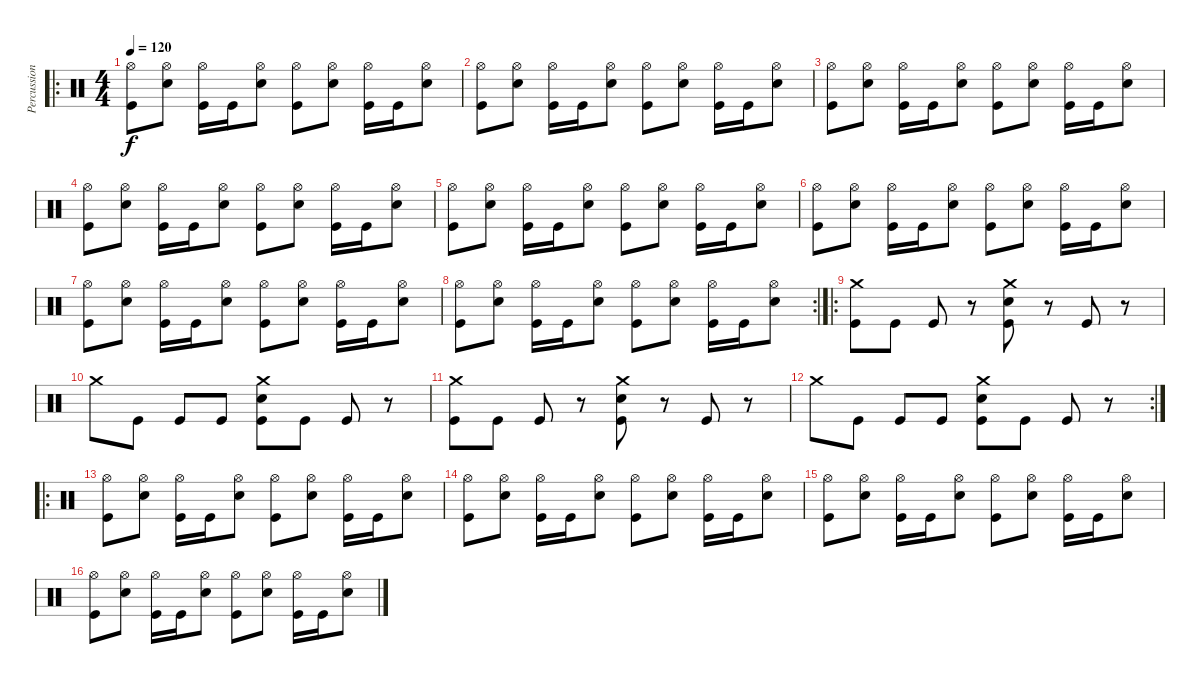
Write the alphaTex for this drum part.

\track ("Percussion" "Percussion") {instrument percussion}
\staff {score}
\articulation defaults
\ro
\ts (4 4)
\tempo 120
\clef neutral
\ks c
("Hi-Hat (open)" "Kick (hit)").8{dy f} ("Hi-Hat (open)" "Snare (hit) 2").8 ("Hi-Hat (open)" "Kick (hit)").16 "Kick (hit)".16 ("Hi-Hat (open)" "Snare (hit) 2").8 ("Hi-Hat (open)" "Kick (hit)").8 ("Hi-Hat (open)" "Snare (hit) 2").8 ("Hi-Hat (open)" "Kick (hit)").16 "Kick (hit)".16 ("Hi-Hat (open)" "Snare (hit) 2").8 |
("Hi-Hat (open)" "Kick (hit)").8 ("Hi-Hat (open)" "Snare (hit) 2").8 ("Hi-Hat (open)" "Kick (hit)").16 "Kick (hit)".16 ("Hi-Hat (open)" "Snare (hit) 2").8 ("Hi-Hat (open)" "Kick (hit)").8 ("Hi-Hat (open)" "Snare (hit) 2").8 ("Hi-Hat (open)" "Kick (hit)").16 "Kick (hit)".16 ("Hi-Hat (open)" "Snare (hit) 2").8 |
("Hi-Hat (open)" "Kick (hit)").8 ("Hi-Hat (open)" "Snare (hit) 2").8 ("Hi-Hat (open)" "Kick (hit)").16 "Kick (hit)".16 ("Hi-Hat (open)" "Snare (hit) 2").8 ("Hi-Hat (open)" "Kick (hit)").8 ("Hi-Hat (open)" "Snare (hit) 2").8 ("Hi-Hat (open)" "Kick (hit)").16 "Kick (hit)".16 ("Hi-Hat (open)" "Snare (hit) 2").8 |
("Hi-Hat (open)" "Kick (hit)").8 ("Hi-Hat (open)" "Snare (hit) 2").8 ("Hi-Hat (open)" "Kick (hit)").16 "Kick (hit)".16 ("Hi-Hat (open)" "Snare (hit) 2").8 ("Hi-Hat (open)" "Kick (hit)").8 ("Hi-Hat (open)" "Snare (hit) 2").8 ("Hi-Hat (open)" "Kick (hit)").16 "Kick (hit)".16 ("Hi-Hat (open)" "Snare (hit) 2").8 |
("Hi-Hat (open)" "Kick (hit)").8 ("Hi-Hat (open)" "Snare (hit) 2").8 ("Hi-Hat (open)" "Kick (hit)").16 "Kick (hit)".16 ("Hi-Hat (open)" "Snare (hit) 2").8 ("Hi-Hat (open)" "Kick (hit)").8 ("Hi-Hat (open)" "Snare (hit) 2").8 ("Hi-Hat (open)" "Kick (hit)").16 "Kick (hit)".16 ("Hi-Hat (open)" "Snare (hit) 2").8 |
("Hi-Hat (open)" "Kick (hit)").8 ("Hi-Hat (open)" "Snare (hit) 2").8 ("Hi-Hat (open)" "Kick (hit)").16 "Kick (hit)".16 ("Hi-Hat (open)" "Snare (hit) 2").8 ("Hi-Hat (open)" "Kick (hit)").8 ("Hi-Hat (open)" "Snare (hit) 2").8 ("Hi-Hat (open)" "Kick (hit)").16 "Kick (hit)".16 ("Hi-Hat (open)" "Snare (hit) 2").8 |
("Hi-Hat (open)" "Kick (hit)").8 ("Hi-Hat (open)" "Snare (hit) 2").8 ("Hi-Hat (open)" "Kick (hit)").16 "Kick (hit)".16 ("Hi-Hat (open)" "Snare (hit) 2").8 ("Hi-Hat (open)" "Kick (hit)").8 ("Hi-Hat (open)" "Snare (hit) 2").8 ("Hi-Hat (open)" "Kick (hit)").16 "Kick (hit)".16 ("Hi-Hat (open)" "Snare (hit) 2").8 |
\rc 2
("Hi-Hat (open)" "Kick (hit)").8 ("Hi-Hat (open)" "Snare (hit) 2").8 ("Hi-Hat (open)" "Kick (hit)").16 "Kick (hit)".16 ("Hi-Hat (open)" "Snare (hit) 2").8 ("Hi-Hat (open)" "Kick (hit)").8 ("Hi-Hat (open)" "Snare (hit) 2").8 ("Hi-Hat (open)" "Kick (hit)").16 "Kick (hit)".16 ("Hi-Hat (open)" "Snare (hit) 2").8 |
\ro
("Crash medium (hit)" "Kick (hit)").8 "Kick (hit)".8 "Kick (hit)".8 r.8 ("Crash medium (hit)" "Snare (hit) 2" "Kick (hit)").8 r.8 "Kick (hit)".8 r.8 |
"Crash medium (hit)".8 "Kick (hit)".8 "Kick (hit)".8 "Kick (hit)".8 ("Crash medium (hit)" "Snare (hit) 2" "Kick (hit)").8 "Kick (hit)".8 "Kick (hit)".8 r.8 |
("Crash medium (hit)" "Kick (hit)").8 "Kick (hit)".8 "Kick (hit)".8 r.8 ("Crash medium (hit)" "Snare (hit) 2" "Kick (hit)").8 r.8 "Kick (hit)".8 r.8 |
\rc 2 "Crash medium (hit)".8 "Kick (hit)".8 "Kick (hit)".8 "Kick (hit)".8
("Crash medium (hit)" "Snare (hit) 2" "Kick (hit)").8 "Kick (hit)".8 "Kick (hit)".8 r.8 |
\ro
("Hi-Hat (open)" "Kick (hit)").8 ("Hi-Hat (open)" "Snare (hit) 2").8 ("Hi-Hat (open)" "Kick (hit)").16 "Kick (hit)".16 ("Hi-Hat (open)" "Snare (hit) 2").8 ("Hi-Hat (open)" "Kick (hit)").8 ("Hi-Hat (open)" "Snare (hit) 2").8 ("Hi-Hat (open)" "Kick (hit)").16 "Kick (hit)".16 ("Hi-Hat (open)" "Snare (hit) 2").8 |
("Hi-Hat (open)" "Kick (hit)").8 ("Hi-Hat (open)" "Snare (hit) 2").8 ("Hi-Hat (open)" "Kick (hit)").16 "Kick (hit)".16 ("Hi-Hat (open)" "Snare (hit) 2").8 ("Hi-Hat (open)" "Kick (hit)").8 ("Hi-Hat (open)" "Snare (hit) 2").8 ("Hi-Hat (open)" "Kick (hit)").16 "Kick (hit)".16 ("Hi-Hat (open)" "Snare (hit) 2").8 |
("Hi-Hat (open)" "Kick (hit)").8 ("Hi-Hat (open)" "Snare (hit) 2").8 ("Hi-Hat (open)" "Kick (hit)").16 "Kick (hit)".16 ("Hi-Hat (open)" "Snare (hit) 2").8 ("Hi-Hat (open)" "Kick (hit)").8 ("Hi-Hat (open)" "Snare (hit) 2").8 ("Hi-Hat (open)" "Kick (hit)").16 "Kick (hit)".16 ("Hi-Hat (open)" "Snare (hit) 2").8 |
("Hi-Hat (open)" "Kick (hit)").8 ("Hi-Hat (open)" "Snare (hit) 2").8 ("Hi-Hat (open)" "Kick (hit)").16 "Kick (hit)".16 ("Hi-Hat (open)" "Snare (hit) 2").8 ("Hi-Hat (open)" "Kick (hit)").8 ("Hi-Hat (open)" "Snare (hit) 2").8 ("Hi-Hat (open)" "Kick (hit)").16 "Kick (hit)".16 ("Hi-Hat (open)" "Snare (hit) 2").8
